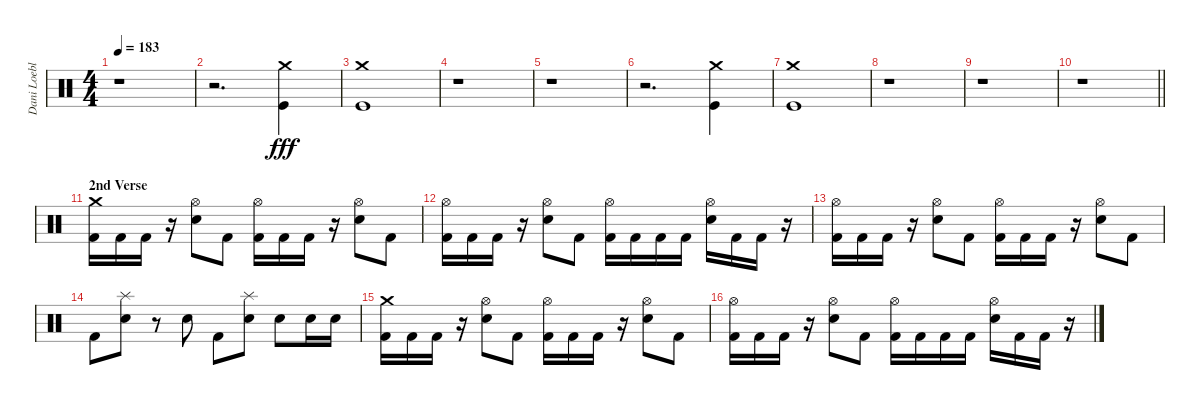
\track ("Dani Loeble" "Dani Loebl") {instrument percussion}
\staff {score}
\articulation defaults
\ts (4 4)
\tempo 183
\clef neutral
\ks c
r.1{dy fff} |
r.2{d} ("Crash medium (hit)" "Kick (hit)").4 |
("Crash medium (hit)" "Kick (hit)").1 |
r.1 |
r.1 |
r.2{d} ("Crash medium (hit)" "Kick (hit)").4 |
("Crash medium (hit)" "Kick (hit)").1 |
r.1 |
r.1 |
\barLineRight lightlight
r.1 |
\section ("" "2nd Verse")
("Crash medium (hit)" "Kick (hit) 2").16 "Kick (hit) 2".16 "Kick (hit) 2".16 r.16 ("Hi-Hat (open)" "Electric Snare (hit)").8 "Kick (hit) 2".8 ("Hi-Hat (open)" "Kick (hit) 2").16 "Kick (hit) 2".16 "Kick (hit) 2".16 r.16 ("Hi-Hat (open)" "Electric Snare (hit)").8 "Kick (hit) 2".8 |
("Hi-Hat (open)" "Kick (hit) 2").16 "Kick (hit) 2".16 "Kick (hit) 2".16 r.16 ("Hi-Hat (open)" "Electric Snare (hit)").8 "Kick (hit) 2".8 ("Hi-Hat (open)" "Kick (hit) 2").16 "Kick (hit) 2".16 "Kick (hit) 2".16 "Kick (hit) 2".16 ("Hi-Hat (open)" "Electric Snare (hit)").16 "Kick (hit) 2".16 "Kick (hit) 2".16 r.16 |
("Hi-Hat (open)" "Kick (hit) 2").16 "Kick (hit) 2".16 "Kick (hit) 2".16 r.16 ("Hi-Hat (open)" "Electric Snare (hit)").8 "Kick (hit) 2".8 ("Hi-Hat (open)" "Kick (hit) 2").16 "Kick (hit) 2".16 "Kick (hit) 2".16 r.16 ("Hi-Hat (open)" "Electric Snare (hit)").8 "Kick (hit) 2".8 |
"Kick (hit) 2".8 ("Splash (hit)" "Electric Snare (hit)").8 r.8 "Electric Snare (hit)".8 "Kick (hit) 2".8 ("Splash (hit)" "Electric Snare (hit)").8 "Electric Snare (hit)".8 "Electric Snare (hit)".16 "Electric Snare (hit)".16 |
("Crash medium (hit)" "Kick (hit) 2").16 "Kick (hit) 2".16 "Kick (hit) 2".16 r.16 ("Hi-Hat (open)" "Electric Snare (hit)").8 "Kick (hit) 2".8 ("Hi-Hat (open)" "Kick (hit) 2").16 "Kick (hit) 2".16 "Kick (hit) 2".16 r.16 ("Hi-Hat (open)" "Electric Snare (hit)").8 "Kick (hit) 2".8 |
("Hi-Hat (open)" "Kick (hit) 2").16 "Kick (hit) 2".16 "Kick (hit) 2".16 r.16 ("Hi-Hat (open)" "Electric Snare (hit)").8 "Kick (hit) 2".8 ("Hi-Hat (open)" "Kick (hit) 2").16 "Kick (hit) 2".16 "Kick (hit) 2".16 "Kick (hit) 2".16 ("Hi-Hat (open)" "Electric Snare (hit)").16 "Kick (hit) 2".16 "Kick (hit) 2".16 r.16
